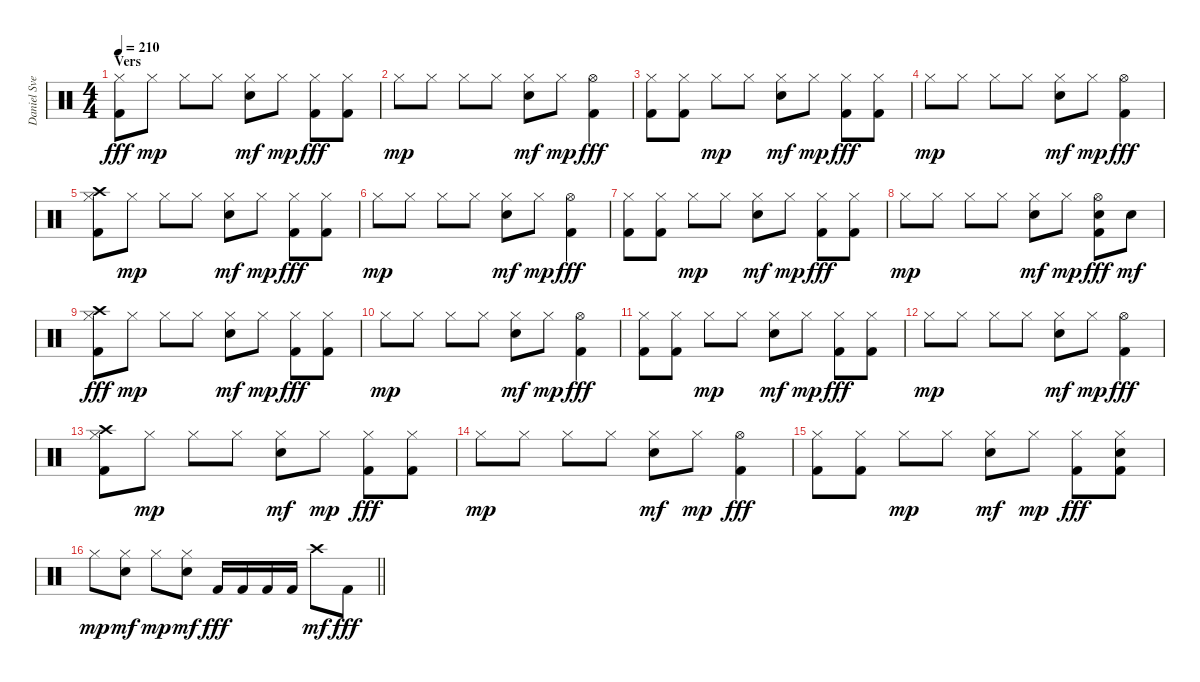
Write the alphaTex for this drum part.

\track ("Daniel Svensson" "Daniel Sve") {instrument percussion}
\staff {score}
\articulation defaults
\ts (4 4)
\section ("" "Vers")
\tempo 210
\clef neutral
\ks c
("Hi-Hat (closed)" "Kick (hit) 2").8{dy fff} "Hi-Hat (closed)".8{dy mp} "Hi-Hat (closed)".8 "Hi-Hat (closed)".8 ("Hi-Hat (closed)" "Electric Snare (hit)").8{dy mf} "Hi-Hat (closed)".8{dy mp} ("Hi-Hat (closed)" "Kick (hit) 2").8{dy fff} ("Hi-Hat (closed)" "Kick (hit) 2").8 |
"Hi-Hat (closed)".8{dy mp} "Hi-Hat (closed)".8 "Hi-Hat (closed)".8 "Hi-Hat (closed)".8 ("Hi-Hat (closed)" "Electric Snare (hit)").8{dy mf} "Hi-Hat (closed)".8{dy mp} ("Hi-Hat (open)" "Kick (hit) 2").4{dy fff} |
("Hi-Hat (closed)" "Kick (hit) 2").8 ("Hi-Hat (closed)" "Kick (hit) 2").8 "Hi-Hat (closed)".8{dy mp} "Hi-Hat (closed)".8 ("Hi-Hat (closed)" "Electric Snare (hit)").8{dy mf} "Hi-Hat (closed)".8{dy mp} ("Hi-Hat (closed)" "Kick (hit) 2").8{dy fff} ("Hi-Hat (closed)" "Kick (hit) 2").8 |
"Hi-Hat (closed)".8{dy mp} "Hi-Hat (closed)".8 "Hi-Hat (closed)".8 "Hi-Hat (closed)".8 ("Hi-Hat (closed)" "Electric Snare (hit)").8{dy mf} "Hi-Hat (closed)".8{dy mp} ("Hi-Hat (open)" "Kick (hit) 2").4{dy fff} |
("Crash high (hit)" "Hi-Hat (closed)" "Kick (hit) 2").8 "Hi-Hat (closed)".8{dy mp} "Hi-Hat (closed)".8 "Hi-Hat (closed)".8 ("Hi-Hat (closed)" "Electric Snare (hit)").8{dy mf} "Hi-Hat (closed)".8{dy mp} ("Hi-Hat (closed)" "Kick (hit) 2").8{dy fff} ("Hi-Hat (closed)" "Kick (hit) 2").8 |
"Hi-Hat (closed)".8{dy mp} "Hi-Hat (closed)".8 "Hi-Hat (closed)".8 "Hi-Hat (closed)".8 ("Hi-Hat (closed)" "Electric Snare (hit)").8{dy mf} "Hi-Hat (closed)".8{dy mp} ("Hi-Hat (open)" "Kick (hit) 2").4{dy fff} |
("Hi-Hat (closed)" "Kick (hit) 2").8 ("Hi-Hat (closed)" "Kick (hit) 2").8 "Hi-Hat (closed)".8{dy mp} "Hi-Hat (closed)".8 ("Hi-Hat (closed)" "Electric Snare (hit)").8{dy mf} "Hi-Hat (closed)".8{dy mp} ("Hi-Hat (closed)" "Kick (hit) 2").8{dy fff} ("Hi-Hat (closed)" "Kick (hit) 2").8 |
"Hi-Hat (closed)".8{dy mp} "Hi-Hat (closed)".8 "Hi-Hat (closed)".8 "Hi-Hat (closed)".8 ("Hi-Hat (closed)" "Electric Snare (hit)").8{dy mf} "Hi-Hat (closed)".8{dy mp} ("Hi-Hat (open)" "Electric Snare (hit)" "Kick (hit) 2").8{dy fff} "Electric Snare (hit)".8{dy mf} |
("Crash high (hit)" "Hi-Hat (closed)" "Kick (hit) 2").8{dy fff} "Hi-Hat (closed)".8{dy mp} "Hi-Hat (closed)".8 "Hi-Hat (closed)".8 ("Hi-Hat (closed)" "Electric Snare (hit)").8{dy mf} "Hi-Hat (closed)".8{dy mp} ("Hi-Hat (closed)" "Kick (hit) 2").8{dy fff} ("Hi-Hat (closed)" "Kick (hit) 2").8 |
"Hi-Hat (closed)".8{dy mp} "Hi-Hat (closed)".8 "Hi-Hat (closed)".8 "Hi-Hat (closed)".8 ("Hi-Hat (closed)" "Electric Snare (hit)").8{dy mf} "Hi-Hat (closed)".8{dy mp} ("Hi-Hat (open)" "Kick (hit) 2").4{dy fff} |
("Hi-Hat (closed)" "Kick (hit) 2").8 ("Hi-Hat (closed)" "Kick (hit) 2").8 "Hi-Hat (closed)".8{dy mp} "Hi-Hat (closed)".8 ("Hi-Hat (closed)" "Electric Snare (hit)").8{dy mf} "Hi-Hat (closed)".8{dy mp} ("Hi-Hat (closed)" "Kick (hit) 2").8{dy fff} ("Hi-Hat (closed)" "Kick (hit) 2").8 |
"Hi-Hat (closed)".8{dy mp} "Hi-Hat (closed)".8 "Hi-Hat (closed)".8 "Hi-Hat (closed)".8 ("Hi-Hat (closed)" "Electric Snare (hit)").8{dy mf} "Hi-Hat (closed)".8{dy mp} ("Hi-Hat (open)" "Kick (hit) 2").4{dy fff} |
("Crash high (hit)" "Hi-Hat (closed)" "Kick (hit) 2").8 "Hi-Hat (closed)".8{dy mp} "Hi-Hat (closed)".8 "Hi-Hat (closed)".8 ("Hi-Hat (closed)" "Electric Snare (hit)").8{dy mf} "Hi-Hat (closed)".8{dy mp} ("Hi-Hat (closed)" "Kick (hit) 2").8{dy fff} ("Hi-Hat (closed)" "Kick (hit) 2").8 |
"Hi-Hat (closed)".8{dy mp} "Hi-Hat (closed)".8 "Hi-Hat (closed)".8 "Hi-Hat (closed)".8 ("Hi-Hat (closed)" "Electric Snare (hit)").8{dy mf} "Hi-Hat (closed)".8{dy mp} ("Hi-Hat (open)" "Kick (hit) 2").4{dy fff} |
("Hi-Hat (closed)" "Kick (hit) 2").8 ("Hi-Hat (closed)" "Kick (hit) 2").8 "Hi-Hat (closed)".8{dy mp} "Hi-Hat (closed)".8 ("Hi-Hat (closed)" "Electric Snare (hit)").8{dy mf} "Hi-Hat (closed)".8{dy mp} ("Hi-Hat (closed)" "Kick (hit) 2").8{dy fff} ("Hi-Hat (closed)" "Electric Snare (hit)" "Kick (hit) 2").8 |
\barLineRight lightlight "Hi-Hat (closed)".8{dy mp}
("Hi-Hat (closed)" "Electric Snare (hit)").8{dy mf} "Hi-Hat (closed)".8{dy mp} ("Hi-Hat (closed)" "Electric Snare (hit)").8{dy mf} "Kick (hit) 2".16{dy fff} "Kick (hit) 2".16 "Kick (hit) 2".16 "Kick (hit) 2".16 "Crash high (hit)".8{dy mf} "Kick (hit) 2".8{dy fff}
